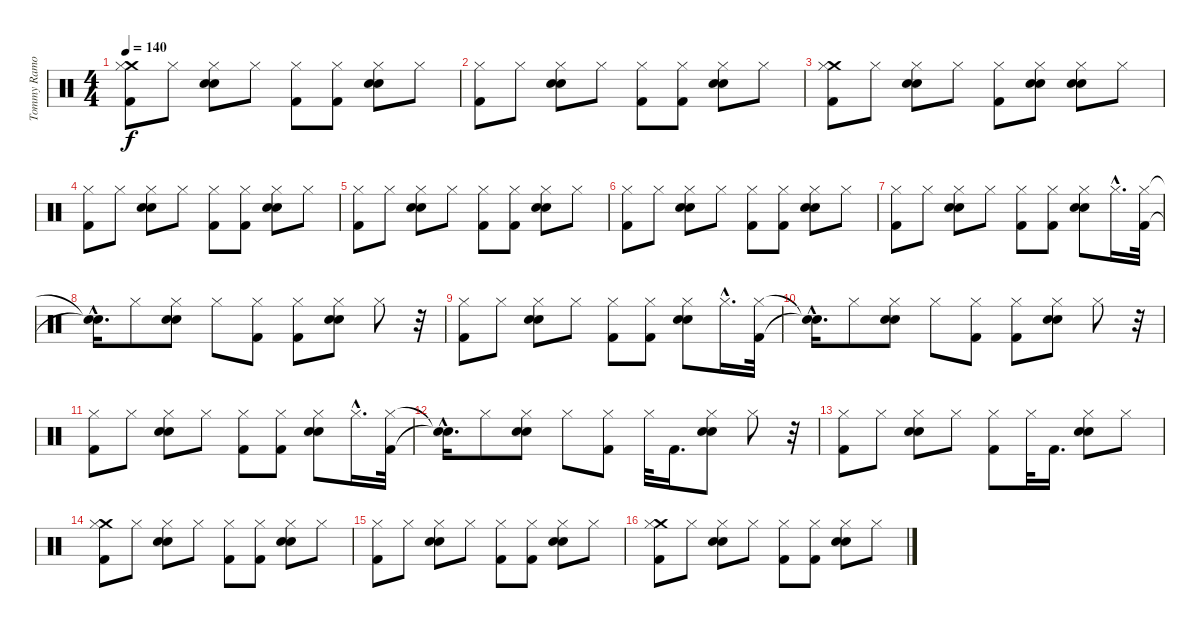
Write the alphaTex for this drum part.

\track ("Tommy Ramone" "Tommy Ramo") {instrument percussion}
\staff {score}
\articulation defaults
\ts (4 4)
\tempo 140
\clef neutral
\ks c
("Crash medium (hit)" "Kick (hit) 2" "Hi-Hat (closed)").8{dy f} "Hi-Hat (closed)".8 ("Electric Snare (hit)" "Snare (hit) 2" "Hi-Hat (closed)").8 "Hi-Hat (closed)".8 ("Kick (hit) 2" "Hi-Hat (closed)").8 ("Kick (hit) 2" "Hi-Hat (closed)").8 ("Electric Snare (hit)" "Snare (hit) 2" "Hi-Hat (closed)").8 "Hi-Hat (closed)".8 |
("Kick (hit) 2" "Hi-Hat (closed)").8 "Hi-Hat (closed)".8 ("Electric Snare (hit)" "Snare (hit) 2" "Hi-Hat (closed)").8 "Hi-Hat (closed)".8 ("Kick (hit) 2" "Hi-Hat (closed)").8 ("Kick (hit) 2" "Hi-Hat (closed)").8 ("Electric Snare (hit)" "Snare (hit) 2" "Hi-Hat (closed)").8 "Hi-Hat (closed)".8 |
("Crash medium (hit)" "Kick (hit) 2" "Hi-Hat (closed)").8 "Hi-Hat (closed)".8 ("Electric Snare (hit)" "Snare (hit) 2" "Hi-Hat (closed)").8 "Hi-Hat (closed)".8 ("Kick (hit) 2" "Hi-Hat (closed)").8 ("Hi-Hat (closed)" "Electric Snare (hit)" "Snare (hit) 2").8 ("Electric Snare (hit)" "Snare (hit) 2" "Hi-Hat (closed)").8 "Hi-Hat (closed)".8 |
("Kick (hit) 2" "Hi-Hat (closed)").8 "Hi-Hat (closed)".8 ("Electric Snare (hit)" "Snare (hit) 2" "Hi-Hat (closed)").8 "Hi-Hat (closed)".8 ("Kick (hit) 2" "Hi-Hat (closed)").8 ("Kick (hit) 2" "Hi-Hat (closed)").8 ("Electric Snare (hit)" "Snare (hit) 2" "Hi-Hat (closed)").8 "Hi-Hat (closed)".8 |
("Kick (hit) 2" "Hi-Hat (closed)").8 "Hi-Hat (closed)".8 ("Electric Snare (hit)" "Snare (hit) 2" "Hi-Hat (closed)").8 "Hi-Hat (closed)".8 ("Kick (hit) 2" "Hi-Hat (closed)").8 ("Kick (hit) 2" "Hi-Hat (closed)").8 ("Electric Snare (hit)" "Snare (hit) 2" "Hi-Hat (closed)").8 "Hi-Hat (closed)".8 |
("Kick (hit) 2" "Hi-Hat (closed)").8 "Hi-Hat (closed)".8 ("Electric Snare (hit)" "Snare (hit) 2" "Hi-Hat (closed)").8 "Hi-Hat (closed)".8 ("Kick (hit) 2" "Hi-Hat (closed)").8 ("Kick (hit) 2" "Hi-Hat (closed)").8 ("Electric Snare (hit)" "Snare (hit) 2" "Hi-Hat (closed)").8 "Hi-Hat (closed)".8 |
("Kick (hit) 2" "Hi-Hat (closed)").8 "Hi-Hat (closed)".8 ("Electric Snare (hit)" "Snare (hit) 2" "Hi-Hat (closed)").8 "Hi-Hat (closed)".8 ("Kick (hit) 2" "Hi-Hat (closed)").8 ("Kick (hit) 2" "Hi-Hat (closed)").8 ("Electric Snare (hit)" "Snare (hit) 2" "Hi-Hat (closed)").8 "Hi-Hat (closed)"{hac}.16{d} ("Kick (hit) 2" "Hi-Hat (closed)").32 |
("Snare (hit)"{hac t} "Snare (hit)"{hac t}).16{d} "Hi-Hat (closed)".8 ("Electric Snare (hit)" "Snare (hit) 2" "Hi-Hat (closed)").8 "Hi-Hat (closed)".8 ("Kick (hit) 2" "Hi-Hat (closed)").8 ("Kick (hit) 2" "Hi-Hat (closed)").8 ("Electric Snare (hit)" "Snare (hit) 2" "Hi-Hat (closed)").8 "Hi-Hat (closed)".8 r.32 |
("Kick (hit) 2" "Hi-Hat (closed)").8 "Hi-Hat (closed)".8 ("Electric Snare (hit)" "Snare (hit) 2" "Hi-Hat (closed)").8 "Hi-Hat (closed)".8 ("Kick (hit) 2" "Hi-Hat (closed)").8 ("Kick (hit) 2" "Hi-Hat (closed)").8 ("Electric Snare (hit)" "Snare (hit) 2" "Hi-Hat (closed)").8 "Hi-Hat (closed)"{hac}.16{d} ("Kick (hit) 2" "Hi-Hat (closed)").32 |
("Snare (hit)"{hac t} "Snare (hit)"{hac t}).16{d} "Hi-Hat (closed)".8 ("Electric Snare (hit)" "Snare (hit) 2" "Hi-Hat (closed)").8 "Hi-Hat (closed)".8 ("Kick (hit) 2" "Hi-Hat (closed)").8 ("Kick (hit) 2" "Hi-Hat (closed)").8 ("Electric Snare (hit)" "Snare (hit) 2" "Hi-Hat (closed)").8 "Hi-Hat (closed)".8 r.32 |
("Kick (hit) 2" "Hi-Hat (closed)").8 "Hi-Hat (closed)".8 ("Electric Snare (hit)" "Snare (hit) 2" "Hi-Hat (closed)").8 "Hi-Hat (closed)".8 ("Kick (hit) 2" "Hi-Hat (closed)").8 ("Kick (hit) 2" "Hi-Hat (closed)").8 ("Electric Snare (hit)" "Snare (hit) 2" "Hi-Hat (closed)").8 "Hi-Hat (closed)"{hac}.16{d} ("Kick (hit) 2" "Hi-Hat (closed)").32 |
("Snare (hit)"{hac t} "Snare (hit)"{hac t}).16{d} "Hi-Hat (closed)".8 ("Electric Snare (hit)" "Snare (hit) 2" "Hi-Hat (closed)").8 "Hi-Hat (closed)".8 ("Kick (hit) 2" "Hi-Hat (closed)").8 "Hi-Hat (closed)".32 "Kick (hit) 2".16{d} ("Electric Snare (hit)" "Snare (hit) 2" "Hi-Hat (closed)").8 "Hi-Hat (closed)".8 r.32 |
("Kick (hit) 2" "Hi-Hat (closed)").8 "Hi-Hat (closed)".8 ("Electric Snare (hit)" "Snare (hit) 2" "Hi-Hat (closed)").8 "Hi-Hat (closed)".8 ("Kick (hit) 2" "Hi-Hat (closed)").8 "Hi-Hat (closed)".32 "Kick (hit) 2".16{d} ("Electric Snare (hit)" "Snare (hit) 2" "Hi-Hat (closed)").8 "Hi-Hat (closed)".8 |
("Crash medium (hit)" "Kick (hit) 2" "Hi-Hat (closed)").8 "Hi-Hat (closed)".8 ("Electric Snare (hit)" "Snare (hit) 2" "Hi-Hat (closed)").8 "Hi-Hat (closed)".8 ("Kick (hit) 2" "Hi-Hat (closed)").8 ("Kick (hit) 2" "Hi-Hat (closed)").8 ("Electric Snare (hit)" "Snare (hit) 2" "Hi-Hat (closed)").8 "Hi-Hat (closed)".8 |
("Kick (hit) 2" "Hi-Hat (closed)").8 "Hi-Hat (closed)".8 ("Electric Snare (hit)" "Snare (hit) 2" "Hi-Hat (closed)").8 "Hi-Hat (closed)".8 ("Kick (hit) 2" "Hi-Hat (closed)").8 ("Kick (hit) 2" "Hi-Hat (closed)").8 ("Electric Snare (hit)" "Snare (hit) 2" "Hi-Hat (closed)").8 "Hi-Hat (closed)".8 |
("Crash medium (hit)" "Kick (hit) 2" "Hi-Hat (closed)").8 "Hi-Hat (closed)".8 ("Electric Snare (hit)" "Snare (hit) 2" "Hi-Hat (closed)").8 "Hi-Hat (closed)".8 ("Kick (hit) 2" "Hi-Hat (closed)").8 ("Kick (hit) 2" "Hi-Hat (closed)").8 ("Electric Snare (hit)" "Snare (hit) 2" "Hi-Hat (closed)").8 "Hi-Hat (closed)".8
